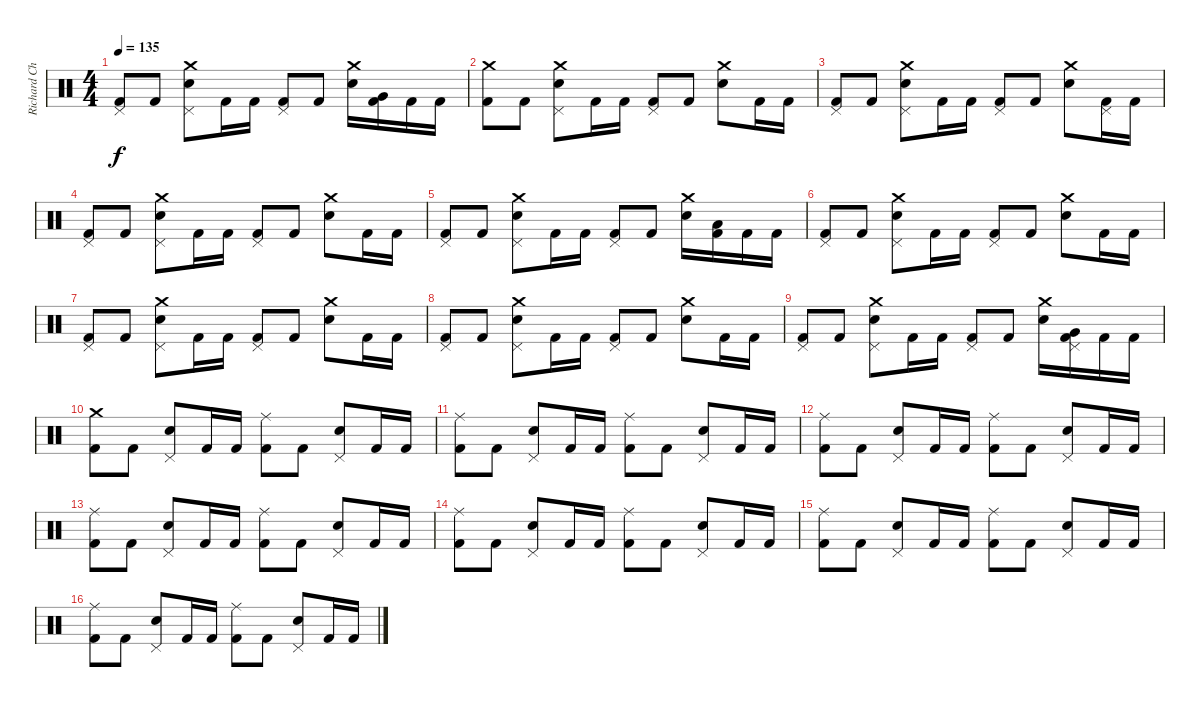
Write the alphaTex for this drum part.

\track ("Richard Christy" "Richard Ch") {instrument percussion}
\staff {score}
\articulation defaults
\ts (4 4)
\tempo 135
\clef neutral
\ks c
("Pedal Hi-Hat (hit)" "Kick (hit) 2").8{dy f} "Kick (hit) 2".8 ("Snare (hit) 2" "Pedal Hi-Hat (hit)" "Crash medium (hit)").8 "Kick (hit) 2".16 "Kick (hit) 2".16 ("Pedal Hi-Hat (hit)" "Kick (hit) 2").8 "Kick (hit) 2".8 ("Snare (hit) 2" "Crash medium (hit)").16 ("Very Low Tom (hit)" "Kick (hit) 2").16 "Kick (hit) 2".16 "Kick (hit) 2".16 |
("Crash medium (hit)" "Kick (hit) 2").8 "Kick (hit) 2".8 ("Snare (hit) 2" "Pedal Hi-Hat (hit)" "Crash medium (hit)").8 "Kick (hit) 2".16 "Kick (hit) 2".16 ("Pedal Hi-Hat (hit)" "Kick (hit) 2").8 "Kick (hit) 2".8 ("Snare (hit) 2" "Crash medium (hit)").8 "Kick (hit) 2".16 "Kick (hit) 2".16 |
("Pedal Hi-Hat (hit)" "Kick (hit) 2").8 "Kick (hit) 2".8 ("Snare (hit) 2" "Pedal Hi-Hat (hit)" "Crash medium (hit)").8 "Kick (hit) 2".16 "Kick (hit) 2".16 ("Pedal Hi-Hat (hit)" "Kick (hit) 2").8 "Kick (hit) 2".8 ("Snare (hit) 2" "Crash medium (hit)").8 ("Kick (hit) 2" "Pedal Hi-Hat (hit)").16 "Kick (hit) 2".16 |
("Pedal Hi-Hat (hit)" "Kick (hit) 2").8 "Kick (hit) 2".8 ("Snare (hit) 2" "Pedal Hi-Hat (hit)" "Crash medium (hit)").8 "Kick (hit) 2".16 "Kick (hit) 2".16 ("Pedal Hi-Hat (hit)" "Kick (hit) 2").8 "Kick (hit) 2".8 ("Snare (hit) 2" "Crash medium (hit)").8 "Kick (hit) 2".16 "Kick (hit) 2".16 |
("Pedal Hi-Hat (hit)" "Kick (hit) 2").8 "Kick (hit) 2".8 ("Snare (hit) 2" "Pedal Hi-Hat (hit)" "Crash medium (hit)").8 "Kick (hit) 2".16 "Kick (hit) 2".16 ("Pedal Hi-Hat (hit)" "Kick (hit) 2").8 "Kick (hit) 2".8 ("Snare (hit) 2" "Crash medium (hit)").16 ("Low Floor Tom (hit)" "Kick (hit) 2").16 "Kick (hit) 2".16 "Kick (hit) 2".16 |
("Pedal Hi-Hat (hit)" "Kick (hit) 2").8 "Kick (hit) 2".8 ("Snare (hit) 2" "Pedal Hi-Hat (hit)" "Crash medium (hit)").8 "Kick (hit) 2".16 "Kick (hit) 2".16 ("Pedal Hi-Hat (hit)" "Kick (hit) 2").8 "Kick (hit) 2".8 ("Snare (hit) 2" "Crash medium (hit)").8 "Kick (hit) 2".16 "Kick (hit) 2".16 |
("Pedal Hi-Hat (hit)" "Kick (hit) 2").8 "Kick (hit) 2".8 ("Snare (hit) 2" "Pedal Hi-Hat (hit)" "Crash medium (hit)").8 "Kick (hit) 2".16 "Kick (hit) 2".16 ("Pedal Hi-Hat (hit)" "Kick (hit) 2").8 "Kick (hit) 2".8 ("Snare (hit) 2" "Crash medium (hit)").8 "Kick (hit) 2".16 "Kick (hit) 2".16 |
("Pedal Hi-Hat (hit)" "Kick (hit) 2").8 "Kick (hit) 2".8 ("Snare (hit) 2" "Pedal Hi-Hat (hit)" "Crash medium (hit)").8 "Kick (hit) 2".16 "Kick (hit) 2".16 ("Pedal Hi-Hat (hit)" "Kick (hit) 2").8 "Kick (hit) 2".8 ("Snare (hit) 2" "Crash medium (hit)").8 "Kick (hit) 2".16 "Kick (hit) 2".16 |
("Pedal Hi-Hat (hit)" "Kick (hit) 2").8 "Kick (hit) 2".8 ("Snare (hit) 2" "Pedal Hi-Hat (hit)" "Crash medium (hit)").8 "Kick (hit) 2".16 "Kick (hit) 2".16 ("Pedal Hi-Hat (hit)" "Kick (hit) 2").8 "Kick (hit) 2".8 ("Snare (hit) 2" "Crash medium (hit)").16 ("Pedal Hi-Hat (hit)" "Very Low Tom (hit)" "Kick (hit) 2").16 "Kick (hit) 2".16 "Kick (hit) 2".16 |
("Crash medium (hit)" "Kick (hit) 2").8 "Kick (hit) 2".8 ("Snare (hit) 2" "Pedal Hi-Hat (hit)").8 "Kick (hit) 2".16 "Kick (hit) 2".16 ("Ride (middle)" "Kick (hit) 2").8 "Kick (hit) 2".8 ("Snare (hit) 2" "Pedal Hi-Hat (hit)").8 "Kick (hit) 2".16 "Kick (hit) 2".16 |
("Ride (middle)" "Kick (hit) 2").8 "Kick (hit) 2".8 ("Snare (hit) 2" "Pedal Hi-Hat (hit)").8 "Kick (hit) 2".16 "Kick (hit) 2".16 ("Ride (middle)" "Kick (hit) 2").8 "Kick (hit) 2".8 ("Snare (hit) 2" "Pedal Hi-Hat (hit)").8 "Kick (hit) 2".16 "Kick (hit) 2".16 |
("Ride (middle)" "Kick (hit) 2").8 "Kick (hit) 2".8 ("Snare (hit) 2" "Pedal Hi-Hat (hit)").8 "Kick (hit) 2".16 "Kick (hit) 2".16 ("Ride (middle)" "Kick (hit) 2").8 "Kick (hit) 2".8 ("Snare (hit) 2" "Pedal Hi-Hat (hit)").8 "Kick (hit) 2".16 "Kick (hit) 2".16 |
("Ride (middle)" "Kick (hit) 2").8 "Kick (hit) 2".8 ("Snare (hit) 2" "Pedal Hi-Hat (hit)").8 "Kick (hit) 2".16 "Kick (hit) 2".16 ("Ride (middle)" "Kick (hit) 2").8 "Kick (hit) 2".8 ("Snare (hit) 2" "Pedal Hi-Hat (hit)").8 "Kick (hit) 2".16 "Kick (hit) 2".16 |
("Ride (middle)" "Kick (hit) 2").8 "Kick (hit) 2".8 ("Snare (hit) 2" "Pedal Hi-Hat (hit)").8 "Kick (hit) 2".16 "Kick (hit) 2".16 ("Ride (middle)" "Kick (hit) 2").8 "Kick (hit) 2".8 ("Snare (hit) 2" "Pedal Hi-Hat (hit)").8 "Kick (hit) 2".16 "Kick (hit) 2".16 |
("Ride (middle)" "Kick (hit) 2").8 "Kick (hit) 2".8 ("Snare (hit) 2" "Pedal Hi-Hat (hit)").8 "Kick (hit) 2".16 "Kick (hit) 2".16 ("Ride (middle)" "Kick (hit) 2").8 "Kick (hit) 2".8 ("Snare (hit) 2" "Pedal Hi-Hat (hit)").8 "Kick (hit) 2".16 "Kick (hit) 2".16 |
("Ride (middle)" "Kick (hit) 2").8 "Kick (hit) 2".8 ("Snare (hit) 2" "Pedal Hi-Hat (hit)").8 "Kick (hit) 2".16 "Kick (hit) 2".16 ("Ride (middle)" "Kick (hit) 2").8 "Kick (hit) 2".8 ("Snare (hit) 2" "Pedal Hi-Hat (hit)").8 "Kick (hit) 2".16 "Kick (hit) 2".16
